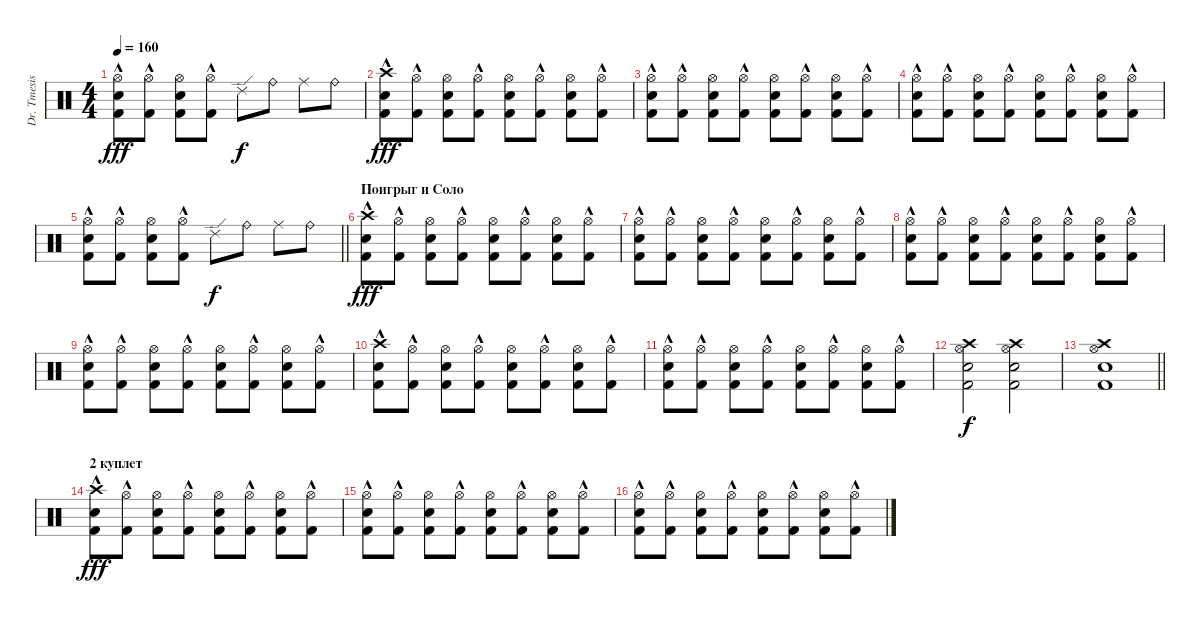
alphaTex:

\track ("Dr. Tmesis" "Dr. Tmesis") {instrument percussion}
\staff {score}
\articulation defaults
\ts (4 4)
\tempo 160
\clef neutral
\ks c
("Kick (hit) 2"{hac} "Snare (hit) 2" "Hi-Hat (open)").8{dy fff} ("Kick (hit) 2"{hac} "Hi-Hat (open)").8 ("Snare (hit) 2" "Hi-Hat (open)" "Kick (hit) 2").8 ("Kick (hit) 2"{hac} "Hi-Hat (open)").8 "Ride (edge) 2".8{dy f} "Ride (bell)".8 "Ride (middle)".8 "Ride (bell)".8 |
("Kick (hit) 2"{hac} "Snare (hit) 2" "Crash high (hit)").8{dy fff} ("Kick (hit) 2"{hac} "Hi-Hat (open)").8 ("Snare (hit) 2" "Hi-Hat (open)" "Kick (hit) 2").8 ("Kick (hit) 2"{hac} "Hi-Hat (open)").8 ("Snare (hit) 2" "Hi-Hat (open)" "Kick (hit) 2").8 ("Kick (hit) 2"{hac} "Hi-Hat (open)").8 ("Snare (hit) 2" "Hi-Hat (open)" "Kick (hit) 2").8 ("Kick (hit) 2"{hac} "Hi-Hat (open)").8 |
("Kick (hit) 2"{hac} "Snare (hit) 2" "Hi-Hat (open)").8 ("Kick (hit) 2"{hac} "Hi-Hat (open)").8 ("Snare (hit) 2" "Hi-Hat (open)" "Kick (hit) 2").8 ("Kick (hit) 2"{hac} "Hi-Hat (open)").8 ("Snare (hit) 2" "Hi-Hat (open)" "Kick (hit) 2").8 ("Kick (hit) 2"{hac} "Hi-Hat (open)").8 ("Snare (hit) 2" "Hi-Hat (open)" "Kick (hit) 2").8 ("Kick (hit) 2"{hac} "Hi-Hat (open)").8 |
("Kick (hit) 2"{hac} "Snare (hit) 2" "Hi-Hat (open)").8 ("Kick (hit) 2"{hac} "Hi-Hat (open)").8 ("Snare (hit) 2" "Hi-Hat (open)" "Kick (hit) 2").8 ("Kick (hit) 2"{hac} "Hi-Hat (open)").8 ("Snare (hit) 2" "Hi-Hat (open)" "Kick (hit) 2").8 ("Kick (hit) 2"{hac} "Hi-Hat (open)").8 ("Snare (hit) 2" "Hi-Hat (open)" "Kick (hit) 2").8 ("Kick (hit) 2"{hac} "Hi-Hat (open)").8 |
\barLineRight lightlight
("Kick (hit) 2"{hac} "Snare (hit) 2" "Hi-Hat (open)").8 ("Kick (hit) 2"{hac} "Hi-Hat (open)").8 ("Snare (hit) 2" "Hi-Hat (open)" "Kick (hit) 2").8 ("Kick (hit) 2"{hac} "Hi-Hat (open)").8 "Ride (edge) 2".8{dy f} "Ride (bell)".8 "Ride (middle)".8 "Ride (bell)".8 |
\section ("" "Поигрыг и Соло")
("Kick (hit) 2"{hac} "Snare (hit) 2" "Crash high (hit)").8{dy fff} ("Kick (hit) 2"{hac} "Hi-Hat (open)").8 ("Snare (hit) 2" "Hi-Hat (open)" "Kick (hit) 2").8 ("Kick (hit) 2"{hac} "Hi-Hat (open)").8 ("Snare (hit) 2" "Hi-Hat (open)" "Kick (hit) 2").8 ("Kick (hit) 2"{hac} "Hi-Hat (open)").8 ("Snare (hit) 2" "Hi-Hat (open)" "Kick (hit) 2").8 ("Kick (hit) 2"{hac} "Hi-Hat (open)").8 |
("Kick (hit) 2"{hac} "Snare (hit) 2" "Hi-Hat (open)").8 ("Kick (hit) 2"{hac} "Hi-Hat (open)").8 ("Snare (hit) 2" "Hi-Hat (open)" "Kick (hit) 2").8 ("Kick (hit) 2"{hac} "Hi-Hat (open)").8 ("Snare (hit) 2" "Hi-Hat (open)" "Kick (hit) 2").8 ("Kick (hit) 2"{hac} "Hi-Hat (open)").8 ("Snare (hit) 2" "Hi-Hat (open)" "Kick (hit) 2").8 ("Kick (hit) 2"{hac} "Hi-Hat (open)").8 |
("Kick (hit) 2"{hac} "Snare (hit) 2" "Hi-Hat (open)").8 ("Kick (hit) 2"{hac} "Hi-Hat (open)").8 ("Snare (hit) 2" "Hi-Hat (open)" "Kick (hit) 2").8 ("Kick (hit) 2"{hac} "Hi-Hat (open)").8 ("Snare (hit) 2" "Hi-Hat (open)" "Kick (hit) 2").8 ("Kick (hit) 2"{hac} "Hi-Hat (open)").8 ("Snare (hit) 2" "Hi-Hat (open)" "Kick (hit) 2").8 ("Kick (hit) 2"{hac} "Hi-Hat (open)").8 |
("Kick (hit) 2"{hac} "Snare (hit) 2" "Hi-Hat (open)").8 ("Kick (hit) 2"{hac} "Hi-Hat (open)").8 ("Snare (hit) 2" "Hi-Hat (open)" "Kick (hit) 2").8 ("Kick (hit) 2"{hac} "Hi-Hat (open)").8 ("Snare (hit) 2" "Hi-Hat (open)" "Kick (hit) 2").8 ("Kick (hit) 2"{hac} "Hi-Hat (open)").8 ("Snare (hit) 2" "Hi-Hat (open)" "Kick (hit) 2").8 ("Kick (hit) 2"{hac} "Hi-Hat (open)").8 |
("Kick (hit) 2"{hac} "Snare (hit) 2" "Crash high (hit)").8 ("Kick (hit) 2"{hac} "Hi-Hat (open)").8 ("Snare (hit) 2" "Hi-Hat (open)" "Kick (hit) 2").8 ("Kick (hit) 2"{hac} "Hi-Hat (open)").8 ("Snare (hit) 2" "Hi-Hat (open)" "Kick (hit) 2").8 ("Kick (hit) 2"{hac} "Hi-Hat (open)").8 ("Snare (hit) 2" "Hi-Hat (open)" "Kick (hit) 2").8 ("Kick (hit) 2"{hac} "Hi-Hat (open)").8 |
("Kick (hit) 2"{hac} "Snare (hit) 2" "Hi-Hat (open)").8 ("Kick (hit) 2"{hac} "Hi-Hat (open)").8 ("Snare (hit) 2" "Hi-Hat (open)" "Kick (hit) 2").8 ("Kick (hit) 2"{hac} "Hi-Hat (open)").8 ("Snare (hit) 2" "Hi-Hat (open)" "Kick (hit) 2").8 ("Kick (hit) 2"{hac} "Hi-Hat (open)").8 ("Snare (hit) 2" "Hi-Hat (open)" "Kick (hit) 2").8 ("Kick (hit) 2"{hac} "Hi-Hat (open)").8 |
("Kick (hit) 2" "Snare (hit) 2" "Crash high (hit)" "Hi-Hat (open)").2{dy f} ("Kick (hit) 2" "Snare (hit) 2" "Crash high (hit)" "Hi-Hat (open)").2 |
\barLineRight lightlight
("Kick (hit) 2" "Snare (hit) 2" "Crash high (hit)" "Hi-Hat (open)").1 |
\section ("" "2 куплет")
("Kick (hit) 2"{hac} "Snare (hit) 2" "Crash high (hit)").8{dy fff} ("Kick (hit) 2"{hac} "Hi-Hat (open)").8 ("Snare (hit) 2" "Hi-Hat (open)" "Kick (hit) 2").8 ("Kick (hit) 2"{hac} "Hi-Hat (open)").8 ("Snare (hit) 2" "Hi-Hat (open)" "Kick (hit) 2").8 ("Kick (hit) 2"{hac} "Hi-Hat (open)").8 ("Snare (hit) 2" "Hi-Hat (open)" "Kick (hit) 2").8 ("Kick (hit) 2"{hac} "Hi-Hat (open)").8 |
("Kick (hit) 2"{hac} "Snare (hit) 2" "Hi-Hat (open)").8 ("Kick (hit) 2"{hac} "Hi-Hat (open)").8 ("Snare (hit) 2" "Hi-Hat (open)" "Kick (hit) 2").8 ("Kick (hit) 2"{hac} "Hi-Hat (open)").8 ("Snare (hit) 2" "Hi-Hat (open)" "Kick (hit) 2").8 ("Kick (hit) 2"{hac} "Hi-Hat (open)").8 ("Snare (hit) 2" "Hi-Hat (open)" "Kick (hit) 2").8 ("Kick (hit) 2"{hac} "Hi-Hat (open)").8 |
("Kick (hit) 2"{hac} "Snare (hit) 2" "Hi-Hat (open)").8 ("Kick (hit) 2"{hac} "Hi-Hat (open)").8 ("Snare (hit) 2" "Hi-Hat (open)" "Kick (hit) 2").8 ("Kick (hit) 2"{hac} "Hi-Hat (open)").8 ("Snare (hit) 2" "Hi-Hat (open)" "Kick (hit) 2").8 ("Kick (hit) 2"{hac} "Hi-Hat (open)").8 ("Snare (hit) 2" "Hi-Hat (open)" "Kick (hit) 2").8 ("Kick (hit) 2"{hac} "Hi-Hat (open)").8
